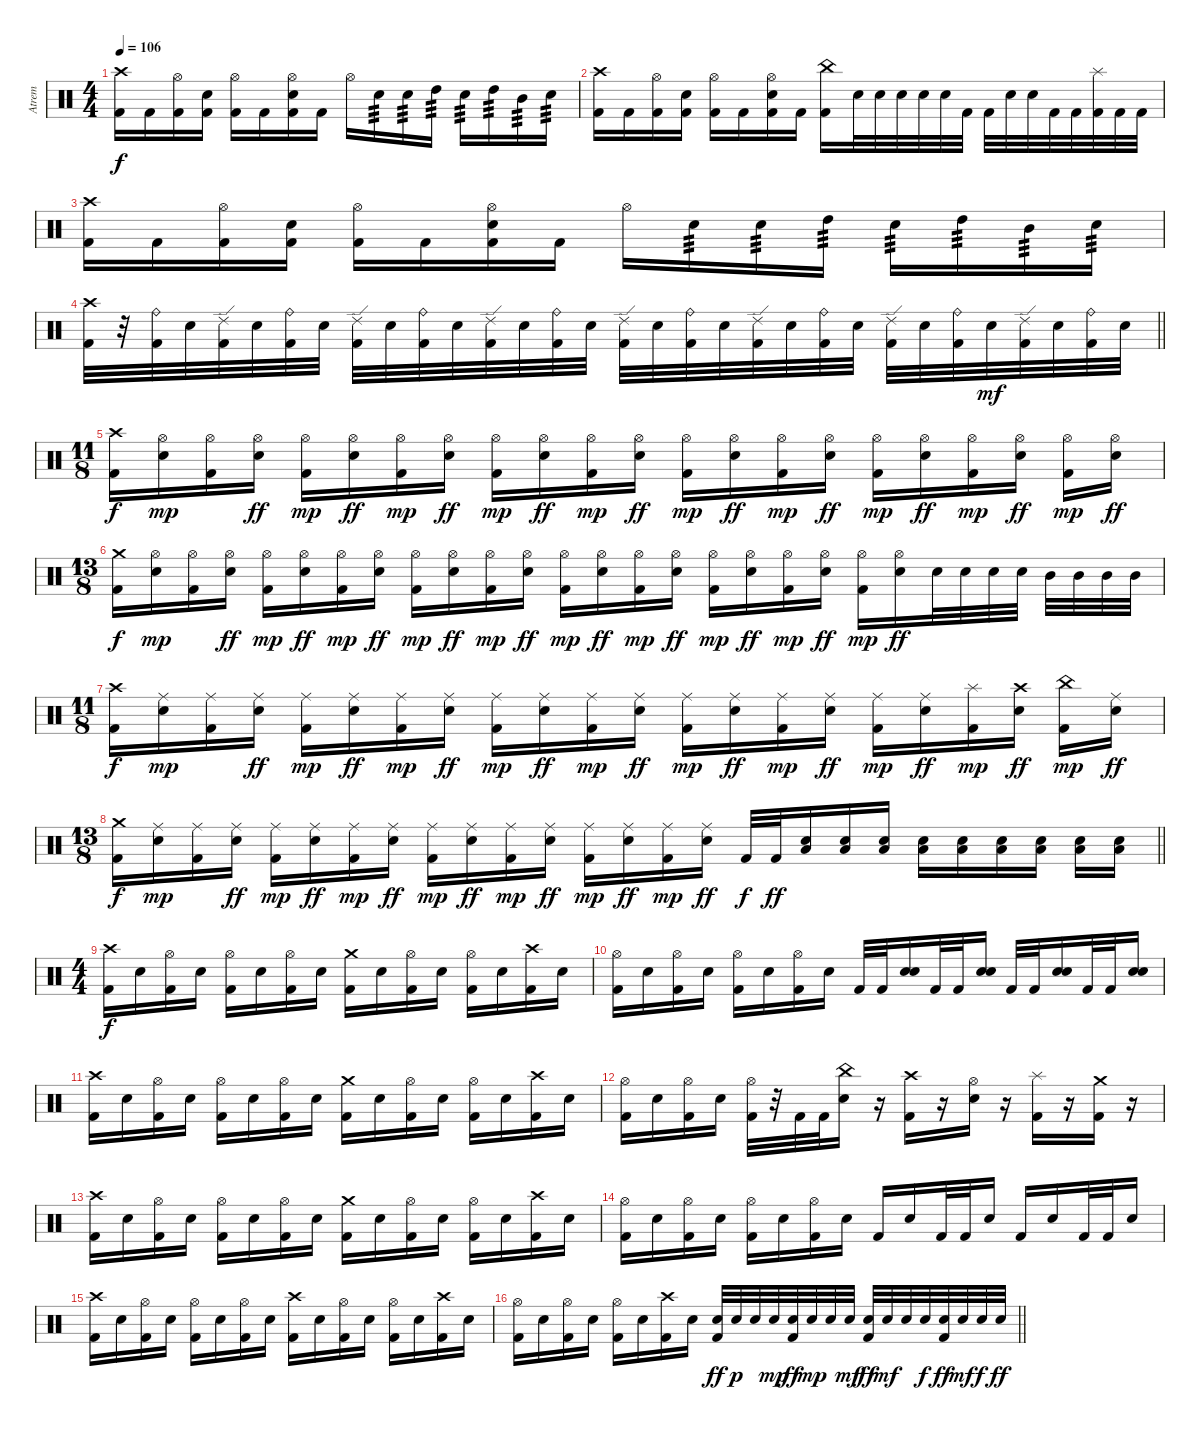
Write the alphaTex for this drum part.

\track ("Atrem" "Atrem") {instrument percussion}
\staff {score}
\articulation defaults
\ts (4 4)
\tempo 106
\clef neutral
\ks c
("Kick (hit) 2" "Crash high (hit)").16{dy f} "Kick (hit) 2".16 ("Kick (hit) 2" "Hi-Hat (open)").16 ("Kick (hit) 2" "Electric Snare (hit)").16 ("Kick (hit) 2" "Hi-Hat (open)").16 "Kick (hit) 2".16 ("Kick (hit) 2" "Electric Snare (hit)" "Hi-Hat (open)").16 "Kick (hit) 2".16 "Hi-Hat (open)".16 "Electric Snare (hit)".16{tp 3} "Electric Snare (hit)".16{tp 3} "High Tom (hit)".16{tp 3} "Electric Snare (hit)".16{tp 3} "High Tom (hit)".16{tp 3} "Mid Tom (hit)".16{tp 3} "Electric Snare (hit)".16{tp 3} |
("Kick (hit) 2" "Crash high (hit)").16 "Kick (hit) 2".16 ("Kick (hit) 2" "Hi-Hat (open)").16 ("Kick (hit) 2" "Electric Snare (hit)").16 ("Kick (hit) 2" "Hi-Hat (open)").16 "Kick (hit) 2".16 ("Kick (hit) 2" "Electric Snare (hit)" "Hi-Hat (open)").16 "Kick (hit) 2".16 ("Kick (hit) 2" "China (hit)").16 "Electric Snare (hit)".32 "Electric Snare (hit)".32 "Electric Snare (hit)".32 "Electric Snare (hit)".32 "Electric Snare (hit)".32 "Kick (hit) 2".32 "Kick (hit) 2".32 "Electric Snare (hit)".32 "Electric Snare (hit)".32 "Kick (hit) 2".32 "Kick (hit) 2".32 ("Kick (hit) 2" "Splash (hit)").32 "Kick (hit) 2".32 "Kick (hit) 2".32 |
("Kick (hit) 2" "Crash high (hit)").16 "Kick (hit) 2".16 ("Kick (hit) 2" "Hi-Hat (open)").16 ("Kick (hit) 2" "Electric Snare (hit)").16 ("Kick (hit) 2" "Hi-Hat (open)").16 "Kick (hit) 2".16 ("Kick (hit) 2" "Electric Snare (hit)" "Hi-Hat (open)").16 "Kick (hit) 2".16 "Hi-Hat (open)".16 "Electric Snare (hit)".16{tp 3} "Electric Snare (hit)".16{tp 3} "High Tom (hit)".16{tp 3} "Electric Snare (hit)".16{tp 3} "High Tom (hit)".16{tp 3} "Mid Tom (hit)".16{tp 3} "Electric Snare (hit)".16{tp 3} |
\barLineRight lightlight
("Kick (hit) 2" "Crash high (hit)").32 r.32 ("Kick (hit) 2" "Ride (bell)").32 "Electric Snare (hit)".32 ("Kick (hit) 2" "Ride (edge) 2").32 "Electric Snare (hit)".32 ("Kick (hit) 2" "Ride (bell)").32 "Electric Snare (hit)".32 ("Kick (hit) 2" "Ride (edge) 2").32 "Electric Snare (hit)".32 ("Kick (hit) 2" "Ride (bell)").32 "Electric Snare (hit)".32 ("Kick (hit) 2" "Ride (edge) 2").32 "Electric Snare (hit)".32 ("Kick (hit) 2" "Ride (bell)").32 "Electric Snare (hit)".32 ("Kick (hit) 2" "Ride (edge) 2").32 "Electric Snare (hit)".32 ("Kick (hit) 2" "Ride (bell)").32 "Electric Snare (hit)".32 ("Kick (hit) 2" "Ride (edge) 2").32 "Electric Snare (hit)".32 ("Kick (hit) 2" "Ride (bell)").32 "Electric Snare (hit)".32 ("Kick (hit) 2" "Ride (edge) 2").32 "Electric Snare (hit)".32 ("Kick (hit) 2" "Ride (bell)").32 "Electric Snare (hit)".32{dy mf} ("Kick (hit) 2" "Ride (edge) 2").32 "Electric Snare (hit)".32 ("Kick (hit) 2" "Ride (bell)").32 "Electric Snare (hit)".32 |
\ts (11 8)
("Kick (hit) 2" "Crash high (hit)").16{dy f} ("Hi-Hat (open)" "Electric Snare (hit)").16{dy mp} ("Kick (hit) 2" "Hi-Hat (open)").16 ("Hi-Hat (open)" "Electric Snare (hit)").16{dy ff} ("Kick (hit) 2" "Hi-Hat (open)").16{dy mp} ("Hi-Hat (open)" "Electric Snare (hit)").16{dy ff} ("Kick (hit) 2" "Hi-Hat (open)").16{dy mp} ("Hi-Hat (open)" "Electric Snare (hit)").16{dy ff} ("Kick (hit) 2" "Hi-Hat (open)").16{dy mp} ("Hi-Hat (open)" "Electric Snare (hit)").16{dy ff} ("Kick (hit) 2" "Hi-Hat (open)").16{dy mp} ("Hi-Hat (open)" "Electric Snare (hit)").16{dy ff} ("Kick (hit) 2" "Hi-Hat (open)").16{dy mp} ("Hi-Hat (open)" "Electric Snare (hit)").16{dy ff} ("Kick (hit) 2" "Hi-Hat (open)").16{dy mp} ("Hi-Hat (open)" "Electric Snare (hit)").16{dy ff} ("Kick (hit) 2" "Hi-Hat (open)").16{dy mp} ("Hi-Hat (open)" "Electric Snare (hit)").16{dy ff} ("Kick (hit) 2" "Hi-Hat (open)").16{dy mp} ("Hi-Hat (open)" "Electric Snare (hit)").16{dy ff} ("Kick (hit) 2" "Hi-Hat (open)").16{dy mp} ("Hi-Hat (open)" "Electric Snare (hit)").16{dy ff} |
\ts (13 8)
("Kick (hit) 2" "Crash medium (hit)").16{dy f} ("Hi-Hat (open)" "Electric Snare (hit)").16{dy mp} ("Kick (hit) 2" "Hi-Hat (open)").16 ("Hi-Hat (open)" "Electric Snare (hit)").16{dy ff} ("Kick (hit) 2" "Hi-Hat (open)").16{dy mp} ("Hi-Hat (open)" "Electric Snare (hit)").16{dy ff} ("Kick (hit) 2" "Hi-Hat (open)").16{dy mp} ("Hi-Hat (open)" "Electric Snare (hit)").16{dy ff} ("Kick (hit) 2" "Hi-Hat (open)").16{dy mp} ("Hi-Hat (open)" "Electric Snare (hit)").16{dy ff} ("Kick (hit) 2" "Hi-Hat (open)").16{dy mp} ("Hi-Hat (open)" "Electric Snare (hit)").16{dy ff} ("Kick (hit) 2" "Hi-Hat (open)").16{dy mp} ("Hi-Hat (open)" "Electric Snare (hit)").16{dy ff} ("Kick (hit) 2" "Hi-Hat (open)").16{dy mp} ("Hi-Hat (open)" "Electric Snare (hit)").16{dy ff} ("Kick (hit) 2" "Hi-Hat (open)").16{dy mp} ("Hi-Hat (open)" "Electric Snare (hit)").16{dy ff} ("Kick (hit) 2" "Hi-Hat (open)").16{dy mp} ("Hi-Hat (open)" "Electric Snare (hit)").16{dy ff} ("Kick (hit) 2" "Hi-Hat (open)").16{dy mp} ("Hi-Hat (open)" "Electric Snare (hit)").16{dy ff} "Electric Snare (hit)".32 "Electric Snare (hit)".32 "Electric Snare (hit)".32 "Electric Snare (hit)".32 "Mid Tom (hit)".32 "Mid Tom (hit)".32 "Mid Tom (hit)".32 "Mid Tom (hit)".32 |
\ts (11 8)
("Kick (hit) 2" "Crash high (hit)").16{dy f} ("Ride (middle)" "Electric Snare (hit)").16{dy mp} ("Kick (hit) 2" "Ride (middle)").16 ("Ride (middle)" "Electric Snare (hit)").16{dy ff} ("Kick (hit) 2" "Ride (middle)").16{dy mp} ("Ride (middle)" "Electric Snare (hit)").16{dy ff} ("Kick (hit) 2" "Ride (middle)").16{dy mp} ("Ride (middle)" "Electric Snare (hit)").16{dy ff} ("Kick (hit) 2" "Ride (middle)").16{dy mp} ("Ride (middle)" "Electric Snare (hit)").16{dy ff} ("Kick (hit) 2" "Ride (middle)").16{dy mp} ("Ride (middle)" "Electric Snare (hit)").16{dy ff} ("Kick (hit) 2" "Ride (middle)").16{dy mp} ("Ride (middle)" "Electric Snare (hit)").16{dy ff} ("Kick (hit) 2" "Ride (middle)").16{dy mp} ("Ride (middle)" "Electric Snare (hit)").16{dy ff} ("Kick (hit) 2" "Ride (middle)").16{dy mp} ("Ride (middle)" "Electric Snare (hit)").16{dy ff} ("Kick (hit) 2" "Splash (hit)").16{dy mp} ("Crash high (hit)" "Electric Snare (hit)").16{dy ff} ("Kick (hit) 2" "China (hit)").16{dy mp} ("Ride (middle)" "Electric Snare (hit)").16{dy ff} |
\ts (13 8)
\barLineRight lightlight
("Kick (hit) 2" "Crash medium (hit)").16{dy f} ("Ride (middle)" "Electric Snare (hit)").16{dy mp} ("Kick (hit) 2" "Ride (middle)").16 ("Ride (middle)" "Electric Snare (hit)").16{dy ff} ("Kick (hit) 2" "Ride (middle)").16{dy mp} ("Ride (middle)" "Electric Snare (hit)").16{dy ff} ("Kick (hit) 2" "Ride (middle)").16{dy mp} ("Ride (middle)" "Electric Snare (hit)").16{dy ff} ("Kick (hit) 2" "Ride (middle)").16{dy mp} ("Ride (middle)" "Electric Snare (hit)").16{dy ff} ("Kick (hit) 2" "Ride (middle)").16{dy mp} ("Ride (middle)" "Electric Snare (hit)").16{dy ff} ("Kick (hit) 2" "Ride (middle)").16{dy mp} ("Ride (middle)" "Electric Snare (hit)").16{dy ff} ("Kick (hit) 2" "Ride (middle)").16{dy mp} ("Ride (middle)" "Electric Snare (hit)").16{dy ff} "Kick (hit) 2".32{dy f} "Kick (hit) 2".32{dy ff} ("Electric Snare (hit)" "Low Floor Tom (hit)").16 ("Electric Snare (hit)" "Low Floor Tom (hit)").16 ("Electric Snare (hit)" "Low Floor Tom (hit)").16 ("Electric Snare (hit)" "Low Floor Tom (hit)").16 ("Electric Snare (hit)" "Low Floor Tom (hit)").16 ("Electric Snare (hit)" "Low Floor Tom (hit)").16 ("Electric Snare (hit)" "Low Floor Tom (hit)").16 ("Electric Snare (hit)" "Low Floor Tom (hit)").16 ("Electric Snare (hit)" "Low Floor Tom (hit)").16 |
\ts (4 4)
("Kick (hit) 2" "Crash high (hit)").16{dy f} "Electric Snare (hit)".16 ("Kick (hit) 2" "Hi-Hat (open)").16 "Electric Snare (hit)".16 ("Kick (hit) 2" "Hi-Hat (open)").16 "Electric Snare (hit)".16 ("Kick (hit) 2" "Hi-Hat (open)").16 "Electric Snare (hit)".16 ("Kick (hit) 2" "Crash medium (hit)").16 "Electric Snare (hit)".16 ("Kick (hit) 2" "Hi-Hat (open)").16 "Electric Snare (hit)".16 ("Kick (hit) 2" "Hi-Hat (open)").16 "Electric Snare (hit)".16 ("Kick (hit) 2" "Crash high (hit)").16 "Electric Snare (hit)".16 |
("Kick (hit) 2" "Hi-Hat (open)").16 "Electric Snare (hit)".16 ("Kick (hit) 2" "Hi-Hat (open)").16 "Electric Snare (hit)".16 ("Kick (hit) 2" "Hi-Hat (open)").16 "Electric Snare (hit)".16 ("Kick (hit) 2" "Hi-Hat (open)").16 "Electric Snare (hit)".16 "Kick (hit) 2".32 "Kick (hit) 2".32 ("Electric Snare (hit)" "Electric Snare (hit)").16 "Kick (hit) 2".32 "Kick (hit) 2".32 ("Electric Snare (hit)" "Electric Snare (hit)").16 "Kick (hit) 2".32 "Kick (hit) 2".32 ("Electric Snare (hit)" "Electric Snare (hit)").16 "Kick (hit) 2".32 "Kick (hit) 2".32 ("Electric Snare (hit)" "Electric Snare (hit)").16 |
("Kick (hit) 2" "Crash high (hit)").16 "Electric Snare (hit)".16 ("Kick (hit) 2" "Hi-Hat (open)").16 "Electric Snare (hit)".16 ("Kick (hit) 2" "Hi-Hat (open)").16 "Electric Snare (hit)".16 ("Kick (hit) 2" "Hi-Hat (open)").16 "Electric Snare (hit)".16 ("Kick (hit) 2" "Crash medium (hit)").16 "Electric Snare (hit)".16 ("Kick (hit) 2" "Hi-Hat (open)").16 "Electric Snare (hit)".16 ("Kick (hit) 2" "Hi-Hat (open)").16 "Electric Snare (hit)".16 ("Kick (hit) 2" "Crash high (hit)").16 "Electric Snare (hit)".16 |
("Kick (hit) 2" "Hi-Hat (open)").16 "Electric Snare (hit)".16 ("Kick (hit) 2" "Hi-Hat (open)").16 "Electric Snare (hit)".16 ("Kick (hit) 2" "Hi-Hat (open)").32 r.32 "Kick (hit) 2".32 "Kick (hit) 2".32 ("Electric Snare (hit)" "China (hit)").16 r.16 ("Kick (hit) 2" "Crash high (hit)").16 r.16 ("Electric Snare (hit)" "Hi-Hat (open)").16 r.16 ("Kick (hit) 2" "Splash (hit)").16 r.16 ("Kick (hit) 2" "Crash medium (hit)").16 r.16 |
("Kick (hit) 2" "Crash high (hit)").16 "Electric Snare (hit)".16 ("Kick (hit) 2" "Hi-Hat (open)").16 "Electric Snare (hit)".16 ("Kick (hit) 2" "Hi-Hat (open)").16 "Electric Snare (hit)".16 ("Kick (hit) 2" "Hi-Hat (open)").16 "Electric Snare (hit)".16 ("Kick (hit) 2" "Crash medium (hit)").16 "Electric Snare (hit)".16 ("Kick (hit) 2" "Hi-Hat (open)").16 "Electric Snare (hit)".16 ("Kick (hit) 2" "Hi-Hat (open)").16 "Electric Snare (hit)".16 ("Kick (hit) 2" "Crash high (hit)").16 "Electric Snare (hit)".16 |
("Kick (hit) 2" "Hi-Hat (open)").16 "Electric Snare (hit)".16 ("Kick (hit) 2" "Hi-Hat (open)").16 "Electric Snare (hit)".16 ("Kick (hit) 2" "Hi-Hat (open)").16 "Electric Snare (hit)".16 ("Kick (hit) 2" "Hi-Hat (open)").16 "Electric Snare (hit)".16 "Kick (hit) 2".16 "Electric Snare (hit)".16 "Kick (hit) 2".32 "Kick (hit) 2".32 "Electric Snare (hit)".16 "Kick (hit) 2".16 "Electric Snare (hit)".16 "Kick (hit) 2".32 "Kick (hit) 2".32 "Electric Snare (hit)".16 |
("Kick (hit) 2" "Crash high (hit)").16 "Electric Snare (hit)".16 ("Kick (hit) 2" "Hi-Hat (open)").16 "Electric Snare (hit)".16 ("Kick (hit) 2" "Hi-Hat (open)").16 "Electric Snare (hit)".16 ("Kick (hit) 2" "Hi-Hat (open)").16 "Electric Snare (hit)".16 ("Kick (hit) 2" "Crash high (hit)").16 "Electric Snare (hit)".16 ("Kick (hit) 2" "Hi-Hat (open)").16 "Electric Snare (hit)".16 ("Kick (hit) 2" "Hi-Hat (open)").16 "Electric Snare (hit)".16 ("Kick (hit) 2" "Crash high (hit)").16 "Electric Snare (hit)".16 |
\barLineRight lightlight
("Kick (hit) 2" "Hi-Hat (open)").16 "Electric Snare (hit)".16 ("Kick (hit) 2" "Hi-Hat (open)").16 "Electric Snare (hit)".16 ("Kick (hit) 2" "Hi-Hat (open)").16 "Electric Snare (hit)".16 ("Kick (hit) 2" "Crash high (hit)").16 "Electric Snare (hit)".16 ("Electric Snare (hit)" "Kick (hit) 2").32{dy ff} "Electric Snare (hit)".32{dy p} "Electric Snare (hit)".32 "Electric Snare (hit)".32{dy mp} ("Electric Snare (hit)" "Kick (hit) 2").32{dy ff} "Electric Snare (hit)".32{dy mp} "Electric Snare (hit)".32 "Electric Snare (hit)".32{dy mf} ("Electric Snare (hit)" "Kick (hit) 2").32{dy ff} "Electric Snare (hit)".32{dy mf} "Electric Snare (hit)".32 "Electric Snare (hit)".32{dy f} ("Electric Snare (hit)" "Kick (hit) 2").32{dy ff} "Electric Snare (hit)".32{dy mf} "Electric Snare (hit)".32{dy f} "Electric Snare (hit)".32{dy ff}
